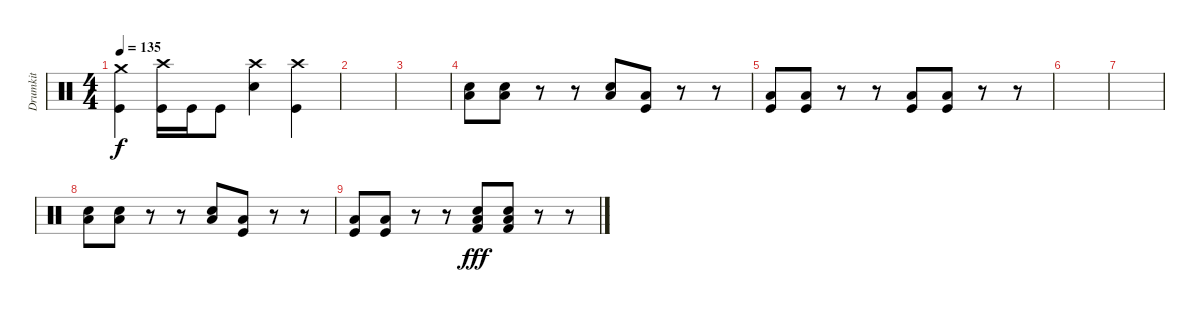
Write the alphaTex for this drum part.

\track ("Drumkit" "Drumkit") {instrument percussion}
\staff {score}
\articulation defaults
\ts (4 4)
\tempo 135
\clef neutral
\ks c
("Crash medium (hit)" "Kick (hit)").4{dy f} ("Crash high (hit)" "Kick (hit)").16 "Kick (hit)".16 "Kick (hit)".8 ("Crash high (hit)" "Snare (hit) 2").4 ("Crash high (hit)" "Kick (hit)").4 |
|
|
("Low Tom (hit)" "Snare (hit) 2").8 ("Low Tom (hit)" "Snare (hit) 2").8 r.8 r.8 ("Low Tom (hit)" "Snare (hit) 2").8 ("Low Tom (hit)" "Kick (hit)").8 r.8 r.8 |
("Low Tom (hit)" "Kick (hit)").8 ("Low Tom (hit)" "Kick (hit)").8 r.8 r.8 ("Low Tom (hit)" "Kick (hit)").8 ("Low Floor Tom (hit)" "Kick (hit)").8 r.8 r.8 |
|
|
("Low Tom (hit)" "Snare (hit) 2").8 ("Low Tom (hit)" "Snare (hit) 2").8 r.8 r.8 ("Low Tom (hit)" "Snare (hit) 2").8 ("Low Tom (hit)" "Kick (hit)").8 r.8 r.8 |
("Low Tom (hit)" "Kick (hit)").8 ("Low Tom (hit)" "Kick (hit)").8 r.8 r.8 ("Electric Snare (hit)" "Low Floor Tom (hit)" "Kick (hit) 2").8{dy fff} ("Electric Snare (hit)" "Low Floor Tom (hit)" "Kick (hit) 2").8 r.8 r.8
